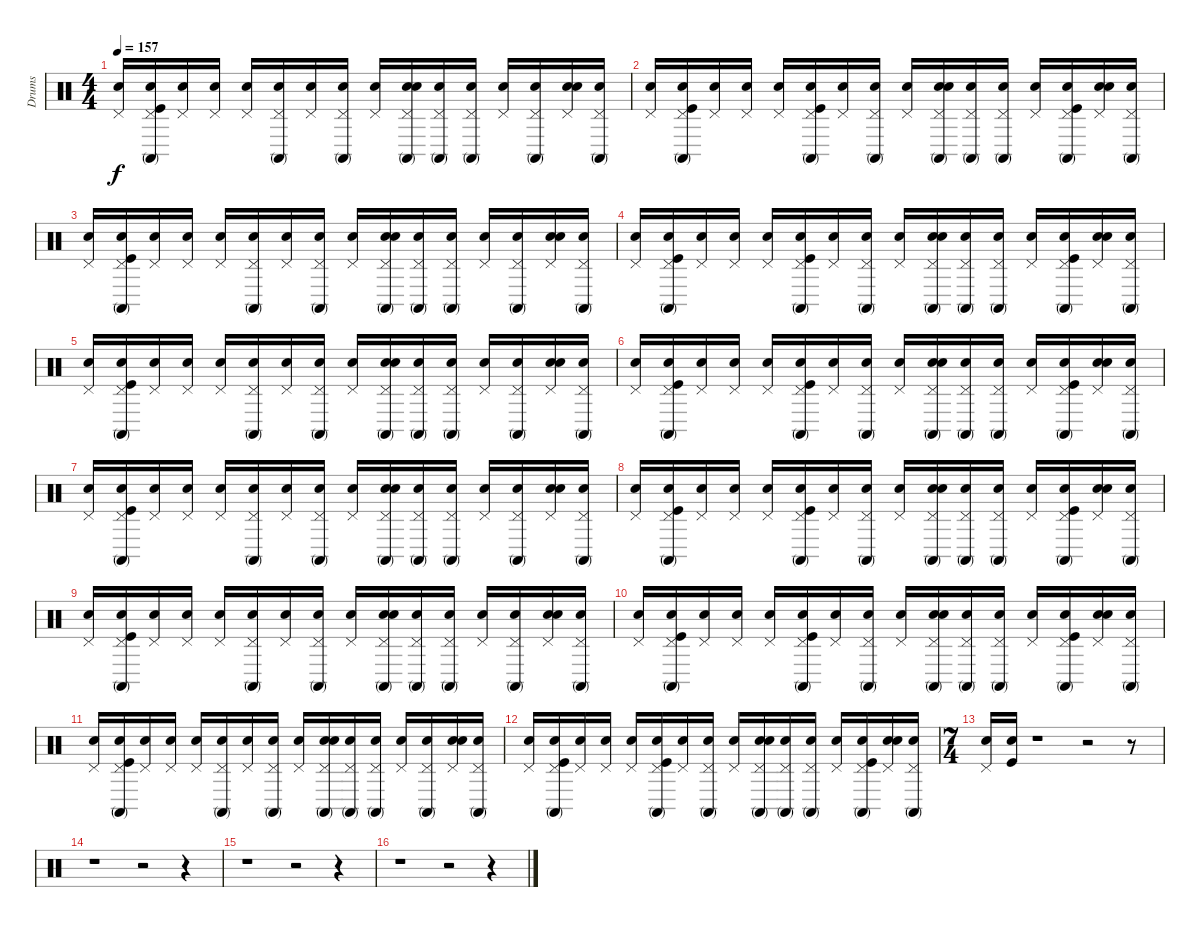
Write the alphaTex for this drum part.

\track ("Drums" "Drums") {instrument percussion}
\staff {score}
\articulation defaults
\ts (4 4)
\tempo 157
\clef neutral
\ks c
("Snare (hit)" "Pedal Hi-Hat (hit)").16{dy f} ("Snare (hit)" "Conga high (mute)" "Kick (hit)" "Pedal Hi-Hat (hit)").16 ("Snare (hit)" "Pedal Hi-Hat (hit)").16 ("Snare (hit)" "Pedal Hi-Hat (hit)").16 ("Snare (hit)" "Pedal Hi-Hat (hit)").16 ("Snare (hit)" "Conga high (mute)" "Pedal Hi-Hat (hit)").16 ("Snare (hit)" "Pedal Hi-Hat (hit)").16 ("Snare (hit)" "Pedal Hi-Hat (hit)" "Conga high (mute)").16 ("Snare (hit)" "Pedal Hi-Hat (hit)").16 ("Snare (hit)" "Snare (hit) 2" "Pedal Hi-Hat (hit)" "Conga high (mute)").16 ("Snare (hit)" "Conga high (mute)" "Pedal Hi-Hat (hit)").16 ("Snare (hit)" "Pedal Hi-Hat (hit)" "Conga high (mute)").16 ("Snare (hit)" "Pedal Hi-Hat (hit)").16 ("Snare (hit)" "Pedal Hi-Hat (hit)" "Conga high (mute)").16 ("Snare (hit)" "Pedal Hi-Hat (hit)" "Snare (hit) 2").16 ("Snare (hit)" "Conga high (mute)" "Pedal Hi-Hat (hit)").16 |
("Snare (hit)" "Pedal Hi-Hat (hit)").16 ("Snare (hit)" "Conga high (mute)" "Pedal Hi-Hat (hit)" "Kick (hit)").16 ("Snare (hit)" "Pedal Hi-Hat (hit)").16 ("Snare (hit)" "Pedal Hi-Hat (hit)").16 ("Snare (hit)" "Pedal Hi-Hat (hit)").16 ("Snare (hit)" "Conga high (mute)" "Kick (hit)" "Pedal Hi-Hat (hit)").16 ("Snare (hit)" "Pedal Hi-Hat (hit)").16 ("Snare (hit)" "Pedal Hi-Hat (hit)" "Conga high (mute)").16 ("Snare (hit)" "Pedal Hi-Hat (hit)").16 ("Snare (hit)" "Snare (hit) 2" "Conga high (mute)" "Pedal Hi-Hat (hit)").16 ("Snare (hit)" "Conga high (mute)" "Pedal Hi-Hat (hit)").16 ("Snare (hit)" "Conga high (mute)" "Pedal Hi-Hat (hit)").16 ("Snare (hit)" "Pedal Hi-Hat (hit)").16 ("Snare (hit)" "Kick (hit)" "Pedal Hi-Hat (hit)" "Conga high (mute)").16 ("Snare (hit)" "Snare (hit) 2" "Pedal Hi-Hat (hit)").16 ("Snare (hit)" "Conga high (mute)" "Pedal Hi-Hat (hit)").16 |
("Snare (hit)" "Pedal Hi-Hat (hit)").16 ("Snare (hit)" "Conga high (mute)" "Kick (hit)" "Pedal Hi-Hat (hit)").16 ("Snare (hit)" "Pedal Hi-Hat (hit)").16 ("Snare (hit)" "Pedal Hi-Hat (hit)").16 ("Snare (hit)" "Pedal Hi-Hat (hit)").16 ("Snare (hit)" "Conga high (mute)" "Pedal Hi-Hat (hit)").16 ("Snare (hit)" "Pedal Hi-Hat (hit)").16 ("Snare (hit)" "Pedal Hi-Hat (hit)" "Conga high (mute)").16 ("Snare (hit)" "Pedal Hi-Hat (hit)").16 ("Snare (hit)" "Pedal Hi-Hat (hit)" "Snare (hit) 2" "Conga high (mute)").16 ("Snare (hit)" "Pedal Hi-Hat (hit)" "Conga high (mute)").16 ("Snare (hit)" "Conga high (mute)" "Pedal Hi-Hat (hit)").16 ("Snare (hit)" "Pedal Hi-Hat (hit)").16 ("Snare (hit)" "Conga high (mute)" "Pedal Hi-Hat (hit)").16 ("Snare (hit)" "Pedal Hi-Hat (hit)" "Snare (hit) 2").16 ("Snare (hit)" "Conga high (mute)" "Pedal Hi-Hat (hit)").16 |
("Snare (hit)" "Pedal Hi-Hat (hit)").16 ("Snare (hit)" "Kick (hit)" "Pedal Hi-Hat (hit)" "Conga high (mute)").16 ("Snare (hit)" "Pedal Hi-Hat (hit)").16 ("Snare (hit)" "Pedal Hi-Hat (hit)").16 ("Snare (hit)" "Pedal Hi-Hat (hit)").16 ("Snare (hit)" "Conga high (mute)" "Kick (hit)" "Pedal Hi-Hat (hit)").16 ("Snare (hit)" "Pedal Hi-Hat (hit)").16 ("Snare (hit)" "Conga high (mute)" "Pedal Hi-Hat (hit)").16 ("Snare (hit)" "Pedal Hi-Hat (hit)").16 ("Snare (hit)" "Snare (hit) 2" "Pedal Hi-Hat (hit)" "Conga high (mute)").16 ("Snare (hit)" "Conga high (mute)" "Pedal Hi-Hat (hit)").16 ("Snare (hit)" "Conga high (mute)" "Pedal Hi-Hat (hit)").16 ("Snare (hit)" "Pedal Hi-Hat (hit)").16 ("Snare (hit)" "Pedal Hi-Hat (hit)" "Conga high (mute)" "Kick (hit)").16 ("Snare (hit)" "Snare (hit) 2" "Pedal Hi-Hat (hit)").16 ("Snare (hit)" "Pedal Hi-Hat (hit)" "Conga high (mute)").16 |
("Snare (hit)" "Pedal Hi-Hat (hit)").16 ("Snare (hit)" "Conga high (mute)" "Pedal Hi-Hat (hit)" "Kick (hit)").16 ("Snare (hit)" "Pedal Hi-Hat (hit)").16 ("Snare (hit)" "Pedal Hi-Hat (hit)").16 ("Snare (hit)" "Pedal Hi-Hat (hit)").16 ("Snare (hit)" "Pedal Hi-Hat (hit)" "Conga high (mute)").16 ("Snare (hit)" "Pedal Hi-Hat (hit)").16 ("Snare (hit)" "Pedal Hi-Hat (hit)" "Conga high (mute)").16 ("Snare (hit)" "Pedal Hi-Hat (hit)").16 ("Snare (hit)" "Pedal Hi-Hat (hit)" "Conga high (mute)" "Snare (hit) 2").16 ("Snare (hit)" "Conga high (mute)" "Pedal Hi-Hat (hit)").16 ("Snare (hit)" "Conga high (mute)" "Pedal Hi-Hat (hit)").16 ("Snare (hit)" "Pedal Hi-Hat (hit)").16 ("Snare (hit)" "Conga high (mute)" "Pedal Hi-Hat (hit)").16 ("Snare (hit)" "Pedal Hi-Hat (hit)" "Snare (hit) 2").16 ("Snare (hit)" "Conga high (mute)" "Pedal Hi-Hat (hit)").16 |
("Snare (hit)" "Pedal Hi-Hat (hit)").16 ("Snare (hit)" "Pedal Hi-Hat (hit)" "Kick (hit)" "Conga high (mute)").16 ("Snare (hit)" "Pedal Hi-Hat (hit)").16 ("Snare (hit)" "Pedal Hi-Hat (hit)").16 ("Snare (hit)" "Pedal Hi-Hat (hit)").16 ("Snare (hit)" "Pedal Hi-Hat (hit)" "Kick (hit)" "Conga high (mute)").16 ("Snare (hit)" "Pedal Hi-Hat (hit)").16 ("Snare (hit)" "Conga high (mute)" "Pedal Hi-Hat (hit)").16 ("Snare (hit)" "Pedal Hi-Hat (hit)").16 ("Snare (hit)" "Pedal Hi-Hat (hit)" "Snare (hit) 2" "Conga high (mute)").16 ("Snare (hit)" "Pedal Hi-Hat (hit)" "Conga high (mute)").16 ("Snare (hit)" "Pedal Hi-Hat (hit)" "Conga high (mute)").16 ("Snare (hit)" "Pedal Hi-Hat (hit)").16 ("Snare (hit)" "Conga high (mute)" "Kick (hit)" "Pedal Hi-Hat (hit)").16 ("Snare (hit)" "Snare (hit) 2" "Pedal Hi-Hat (hit)").16 ("Snare (hit)" "Pedal Hi-Hat (hit)" "Conga high (mute)").16 |
("Snare (hit)" "Pedal Hi-Hat (hit)").16 ("Snare (hit)" "Kick (hit)" "Conga high (mute)" "Pedal Hi-Hat (hit)").16 ("Snare (hit)" "Pedal Hi-Hat (hit)").16 ("Snare (hit)" "Pedal Hi-Hat (hit)").16 ("Snare (hit)" "Pedal Hi-Hat (hit)").16 ("Snare (hit)" "Conga high (mute)" "Pedal Hi-Hat (hit)").16 ("Snare (hit)" "Pedal Hi-Hat (hit)").16 ("Snare (hit)" "Pedal Hi-Hat (hit)" "Conga high (mute)").16 ("Snare (hit)" "Pedal Hi-Hat (hit)").16 ("Snare (hit)" "Snare (hit) 2" "Conga high (mute)" "Pedal Hi-Hat (hit)").16 ("Snare (hit)" "Pedal Hi-Hat (hit)" "Conga high (mute)").16 ("Snare (hit)" "Pedal Hi-Hat (hit)" "Conga high (mute)").16 ("Snare (hit)" "Pedal Hi-Hat (hit)").16 ("Snare (hit)" "Pedal Hi-Hat (hit)" "Conga high (mute)").16 ("Snare (hit)" "Snare (hit) 2" "Pedal Hi-Hat (hit)").16 ("Snare (hit)" "Conga high (mute)" "Pedal Hi-Hat (hit)").16 |
("Snare (hit)" "Pedal Hi-Hat (hit)").16 ("Snare (hit)" "Kick (hit)" "Pedal Hi-Hat (hit)" "Conga high (mute)").16 ("Snare (hit)" "Pedal Hi-Hat (hit)").16 ("Snare (hit)" "Pedal Hi-Hat (hit)").16 ("Snare (hit)" "Pedal Hi-Hat (hit)").16 ("Snare (hit)" "Kick (hit)" "Conga high (mute)" "Pedal Hi-Hat (hit)").16 ("Snare (hit)" "Pedal Hi-Hat (hit)").16 ("Snare (hit)" "Pedal Hi-Hat (hit)" "Conga high (mute)").16 ("Snare (hit)" "Pedal Hi-Hat (hit)").16 ("Snare (hit)" "Snare (hit) 2" "Pedal Hi-Hat (hit)" "Conga high (mute)").16 ("Snare (hit)" "Pedal Hi-Hat (hit)" "Conga high (mute)").16 ("Snare (hit)" "Pedal Hi-Hat (hit)" "Conga high (mute)").16 ("Snare (hit)" "Pedal Hi-Hat (hit)").16 ("Snare (hit)" "Conga high (mute)" "Kick (hit)" "Pedal Hi-Hat (hit)").16 ("Snare (hit)" "Pedal Hi-Hat (hit)" "Snare (hit) 2").16 ("Snare (hit)" "Conga high (mute)" "Pedal Hi-Hat (hit)").16 |
("Snare (hit)" "Pedal Hi-Hat (hit)").16 ("Snare (hit)" "Kick (hit)" "Pedal Hi-Hat (hit)" "Conga high (mute)").16 ("Snare (hit)" "Pedal Hi-Hat (hit)").16 ("Snare (hit)" "Pedal Hi-Hat (hit)").16 ("Snare (hit)" "Pedal Hi-Hat (hit)").16 ("Snare (hit)" "Conga high (mute)" "Pedal Hi-Hat (hit)").16 ("Snare (hit)" "Pedal Hi-Hat (hit)").16 ("Snare (hit)" "Pedal Hi-Hat (hit)" "Conga high (mute)").16 ("Snare (hit)" "Pedal Hi-Hat (hit)").16 ("Snare (hit)" "Snare (hit) 2" "Conga high (mute)" "Pedal Hi-Hat (hit)").16 ("Snare (hit)" "Pedal Hi-Hat (hit)" "Conga high (mute)").16 ("Snare (hit)" "Pedal Hi-Hat (hit)" "Conga high (mute)").16 ("Snare (hit)" "Pedal Hi-Hat (hit)").16 ("Snare (hit)" "Pedal Hi-Hat (hit)" "Conga high (mute)").16 ("Snare (hit)" "Pedal Hi-Hat (hit)" "Snare (hit) 2").16 ("Snare (hit)" "Conga high (mute)" "Pedal Hi-Hat (hit)").16 |
("Snare (hit)" "Pedal Hi-Hat (hit)").16 ("Snare (hit)" "Kick (hit)" "Pedal Hi-Hat (hit)" "Conga high (mute)").16 ("Snare (hit)" "Pedal Hi-Hat (hit)").16 ("Snare (hit)" "Pedal Hi-Hat (hit)").16 ("Snare (hit)" "Pedal Hi-Hat (hit)").16 ("Snare (hit)" "Kick (hit)" "Conga high (mute)" "Pedal Hi-Hat (hit)").16 ("Snare (hit)" "Pedal Hi-Hat (hit)").16 ("Snare (hit)" "Conga high (mute)" "Pedal Hi-Hat (hit)").16 ("Snare (hit)" "Pedal Hi-Hat (hit)").16 ("Snare (hit)" "Pedal Hi-Hat (hit)" "Conga high (mute)" "Snare (hit) 2").16 ("Snare (hit)" "Conga high (mute)" "Pedal Hi-Hat (hit)").16 ("Snare (hit)" "Conga high (mute)" "Pedal Hi-Hat (hit)").16 ("Snare (hit)" "Pedal Hi-Hat (hit)").16 ("Snare (hit)" "Kick (hit)" "Pedal Hi-Hat (hit)" "Conga high (mute)").16 ("Snare (hit)" "Pedal Hi-Hat (hit)" "Snare (hit) 2").16 ("Snare (hit)" "Pedal Hi-Hat (hit)" "Conga high (mute)").16 |
("Snare (hit)" "Pedal Hi-Hat (hit)").16 ("Snare (hit)" "Conga high (mute)" "Pedal Hi-Hat (hit)" "Kick (hit)").16 ("Snare (hit)" "Pedal Hi-Hat (hit)").16 ("Snare (hit)" "Pedal Hi-Hat (hit)").16 ("Snare (hit)" "Pedal Hi-Hat (hit)").16 ("Snare (hit)" "Conga high (mute)" "Pedal Hi-Hat (hit)").16 ("Snare (hit)" "Pedal Hi-Hat (hit)").16 ("Snare (hit)" "Pedal Hi-Hat (hit)" "Conga high (mute)").16 ("Snare (hit)" "Pedal Hi-Hat (hit)").16 ("Snare (hit)" "Pedal Hi-Hat (hit)" "Snare (hit) 2" "Conga high (mute)").16 ("Snare (hit)" "Pedal Hi-Hat (hit)" "Conga high (mute)").16 ("Snare (hit)" "Pedal Hi-Hat (hit)" "Conga high (mute)").16 ("Snare (hit)" "Pedal Hi-Hat (hit)").16 ("Snare (hit)" "Pedal Hi-Hat (hit)" "Conga high (mute)").16 ("Snare (hit)" "Snare (hit) 2" "Pedal Hi-Hat (hit)").16 ("Snare (hit)" "Pedal Hi-Hat (hit)" "Conga high (mute)").16 |
("Snare (hit)" "Pedal Hi-Hat (hit)").16 ("Snare (hit)" "Pedal Hi-Hat (hit)" "Kick (hit)" "Conga high (mute)").16 ("Snare (hit)" "Pedal Hi-Hat (hit)").16 ("Snare (hit)" "Pedal Hi-Hat (hit)").16 ("Snare (hit)" "Pedal Hi-Hat (hit)").16 ("Snare (hit)" "Conga high (mute)" "Kick (hit)" "Pedal Hi-Hat (hit)").16 ("Snare (hit)" "Pedal Hi-Hat (hit)").16 ("Snare (hit)" "Conga high (mute)" "Pedal Hi-Hat (hit)").16 ("Snare (hit)" "Pedal Hi-Hat (hit)").16 ("Snare (hit)" "Conga high (mute)" "Pedal Hi-Hat (hit)" "Snare (hit) 2").16 ("Snare (hit)" "Pedal Hi-Hat (hit)" "Conga high (mute)").16 ("Snare (hit)" "Pedal Hi-Hat (hit)" "Conga high (mute)").16 ("Snare (hit)" "Pedal Hi-Hat (hit)").16 ("Snare (hit)" "Kick (hit)" "Pedal Hi-Hat (hit)" "Conga high (mute)").16 ("Snare (hit)" "Snare (hit) 2" "Pedal Hi-Hat (hit)").16 ("Snare (hit)" "Pedal Hi-Hat (hit)" "Conga high (mute)").16 |
\ts (7 4)
("Snare (hit)" "Pedal Hi-Hat (hit)").16 ("Snare (hit)" "Kick (hit)").16 r.1 r.2 r.8 |
r.1 r.2 r.4 |
r.1 r.2 r.4 |
r.1 r.2 r.4
